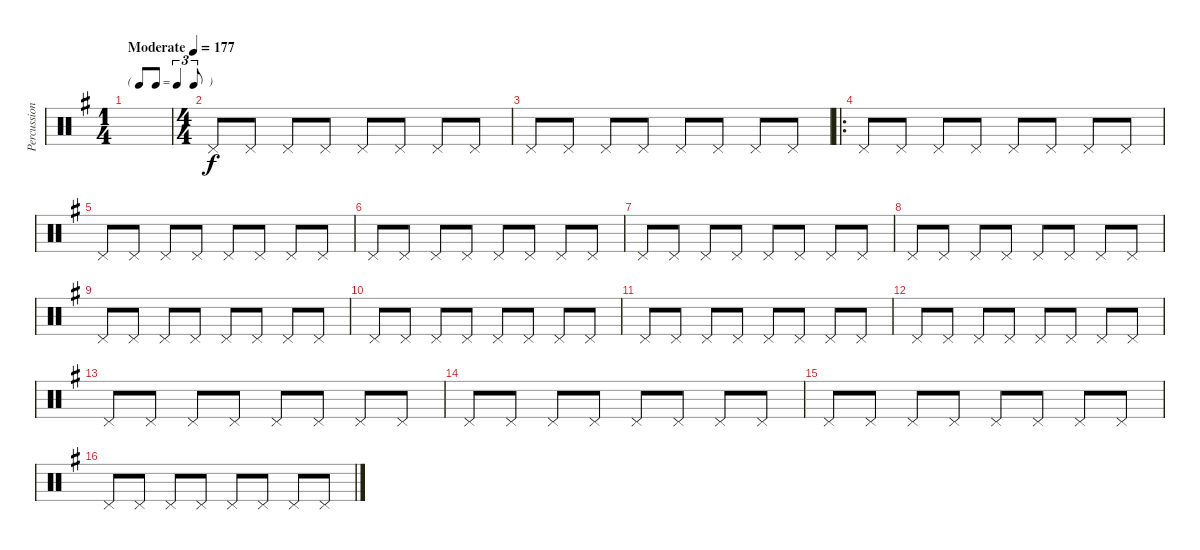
\track ("Percussion" "Percussion") {instrument percussion}
\staff {score}
\articulation defaults
\ts (1 4)
\tf triplet8th
\tempo (177 "Moderate")
\clef neutral
\ks g
|
\ts (4 4)
"Pedal Hi-Hat (hit)".8 "Pedal Hi-Hat (hit)".8 "Pedal Hi-Hat (hit)".8 "Pedal Hi-Hat (hit)".8 "Pedal Hi-Hat (hit)".8 "Pedal Hi-Hat (hit)".8 "Pedal Hi-Hat (hit)".8 "Pedal Hi-Hat (hit)".8 |
"Pedal Hi-Hat (hit)".8 "Pedal Hi-Hat (hit)".8 "Pedal Hi-Hat (hit)".8 "Pedal Hi-Hat (hit)".8 "Pedal Hi-Hat (hit)".8 "Pedal Hi-Hat (hit)".8 "Pedal Hi-Hat (hit)".8 "Pedal Hi-Hat (hit)".8 |
\ro "Pedal Hi-Hat (hit)".8 "Pedal Hi-Hat (hit)".8 "Pedal Hi-Hat (hit)".8 "Pedal Hi-Hat (hit)".8 "Pedal Hi-Hat (hit)".8 "Pedal Hi-Hat (hit)".8 "Pedal Hi-Hat (hit)".8 "Pedal Hi-Hat (hit)".8
|
"Pedal Hi-Hat (hit)".8 "Pedal Hi-Hat (hit)".8 "Pedal Hi-Hat (hit)".8 "Pedal Hi-Hat (hit)".8 "Pedal Hi-Hat (hit)".8 "Pedal Hi-Hat (hit)".8 "Pedal Hi-Hat (hit)".8 "Pedal Hi-Hat (hit)".8 |
"Pedal Hi-Hat (hit)".8 "Pedal Hi-Hat (hit)".8 "Pedal Hi-Hat (hit)".8 "Pedal Hi-Hat (hit)".8 "Pedal Hi-Hat (hit)".8 "Pedal Hi-Hat (hit)".8 "Pedal Hi-Hat (hit)".8 "Pedal Hi-Hat (hit)".8 |
"Pedal Hi-Hat (hit)".8 "Pedal Hi-Hat (hit)".8 "Pedal Hi-Hat (hit)".8 "Pedal Hi-Hat (hit)".8 "Pedal Hi-Hat (hit)".8 "Pedal Hi-Hat (hit)".8 "Pedal Hi-Hat (hit)".8 "Pedal Hi-Hat (hit)".8 |
"Pedal Hi-Hat (hit)".8 "Pedal Hi-Hat (hit)".8 "Pedal Hi-Hat (hit)".8 "Pedal Hi-Hat (hit)".8 "Pedal Hi-Hat (hit)".8 "Pedal Hi-Hat (hit)".8 "Pedal Hi-Hat (hit)".8 "Pedal Hi-Hat (hit)".8 |
"Pedal Hi-Hat (hit)".8 "Pedal Hi-Hat (hit)".8 "Pedal Hi-Hat (hit)".8 "Pedal Hi-Hat (hit)".8 "Pedal Hi-Hat (hit)".8 "Pedal Hi-Hat (hit)".8 "Pedal Hi-Hat (hit)".8 "Pedal Hi-Hat (hit)".8 |
"Pedal Hi-Hat (hit)".8 "Pedal Hi-Hat (hit)".8 "Pedal Hi-Hat (hit)".8 "Pedal Hi-Hat (hit)".8 "Pedal Hi-Hat (hit)".8 "Pedal Hi-Hat (hit)".8 "Pedal Hi-Hat (hit)".8 "Pedal Hi-Hat (hit)".8 |
"Pedal Hi-Hat (hit)".8 "Pedal Hi-Hat (hit)".8 "Pedal Hi-Hat (hit)".8 "Pedal Hi-Hat (hit)".8 "Pedal Hi-Hat (hit)".8 "Pedal Hi-Hat (hit)".8 "Pedal Hi-Hat (hit)".8 "Pedal Hi-Hat (hit)".8 |
"Pedal Hi-Hat (hit)".8 "Pedal Hi-Hat (hit)".8 "Pedal Hi-Hat (hit)".8 "Pedal Hi-Hat (hit)".8 "Pedal Hi-Hat (hit)".8 "Pedal Hi-Hat (hit)".8 "Pedal Hi-Hat (hit)".8 "Pedal Hi-Hat (hit)".8 |
"Pedal Hi-Hat (hit)".8 "Pedal Hi-Hat (hit)".8 "Pedal Hi-Hat (hit)".8 "Pedal Hi-Hat (hit)".8 "Pedal Hi-Hat (hit)".8 "Pedal Hi-Hat (hit)".8 "Pedal Hi-Hat (hit)".8 "Pedal Hi-Hat (hit)".8 |
"Pedal Hi-Hat (hit)".8 "Pedal Hi-Hat (hit)".8 "Pedal Hi-Hat (hit)".8 "Pedal Hi-Hat (hit)".8 "Pedal Hi-Hat (hit)".8 "Pedal Hi-Hat (hit)".8 "Pedal Hi-Hat (hit)".8 "Pedal Hi-Hat (hit)".8 |
"Pedal Hi-Hat (hit)".8 "Pedal Hi-Hat (hit)".8 "Pedal Hi-Hat (hit)".8 "Pedal Hi-Hat (hit)".8 "Pedal Hi-Hat (hit)".8 "Pedal Hi-Hat (hit)".8 "Pedal Hi-Hat (hit)".8 "Pedal Hi-Hat (hit)".8 |
"Pedal Hi-Hat (hit)".8 "Pedal Hi-Hat (hit)".8 "Pedal Hi-Hat (hit)".8 "Pedal Hi-Hat (hit)".8 "Pedal Hi-Hat (hit)".8 "Pedal Hi-Hat (hit)".8 "Pedal Hi-Hat (hit)".8 "Pedal Hi-Hat (hit)".8
